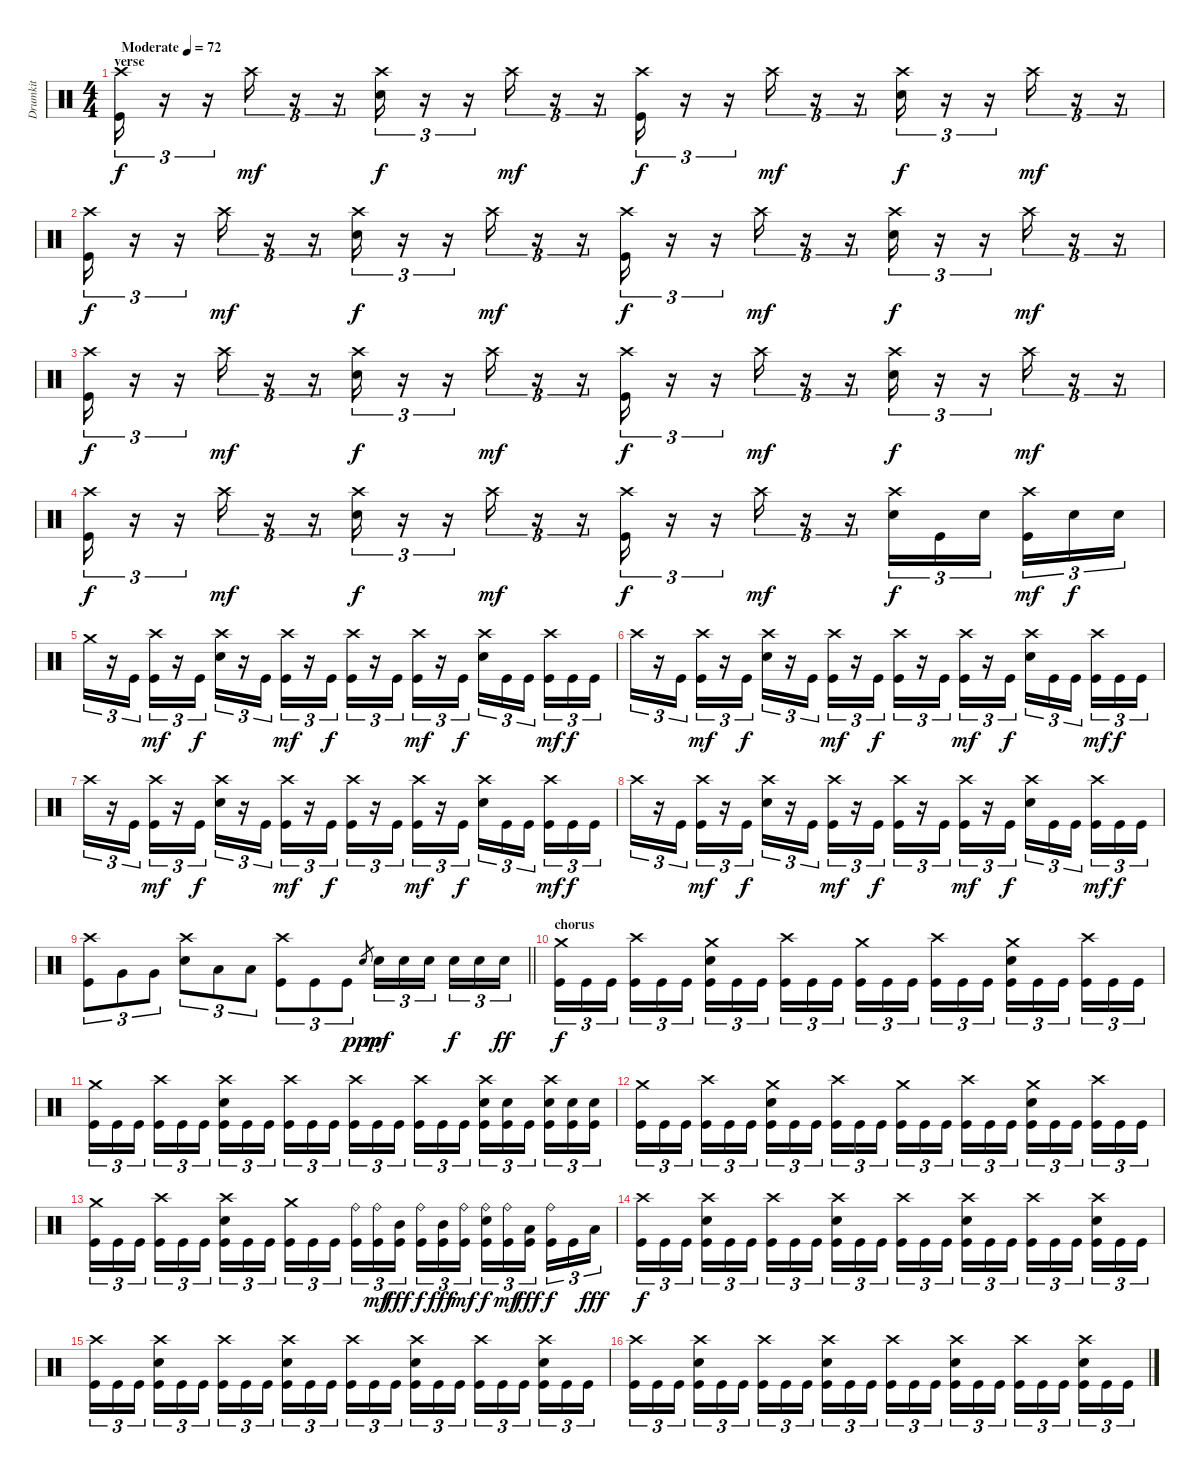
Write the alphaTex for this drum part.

\track ("Drumkit" "Drumkit") {instrument percussion}
\staff
\articulation defaults
\ts (4 4)
\section ("" "verse")
\tempo (72 "Moderate")
\clef neutral
\ks c
("Crash high (hit)" "Kick (hit)").16{tu (3 2) dy f} r.16{tu (3 2)} r.16{tu (3 2)} "Crash high (hit)".16{tu (3 2) dy mf} r.16{tu (3 2)} r.16{tu (3 2)} ("Crash high (hit)" "Snare (hit) 2").16{tu (3 2) dy f} r.16{tu (3 2)} r.16{tu (3 2)} "Crash high (hit)".16{tu (3 2) dy mf} r.16{tu (3 2)} r.16{tu (3 2)} ("Crash high (hit)" "Kick (hit)").16{tu (3 2) dy f} r.16{tu (3 2)} r.16{tu (3 2)} "Crash high (hit)".16{tu (3 2) dy mf} r.16{tu (3 2)} r.16{tu (3 2)} ("Crash high (hit)" "Snare (hit) 2").16{tu (3 2) dy f} r.16{tu (3 2)} r.16{tu (3 2)} "Crash high (hit)".16{tu (3 2) dy mf} r.16{tu (3 2)} r.16{tu (3 2)} |
("Crash high (hit)" "Kick (hit)").16{tu (3 2) dy f} r.16{tu (3 2)} r.16{tu (3 2)} "Crash high (hit)".16{tu (3 2) dy mf} r.16{tu (3 2)} r.16{tu (3 2)} ("Crash high (hit)" "Snare (hit) 2").16{tu (3 2) dy f} r.16{tu (3 2)} r.16{tu (3 2)} "Crash high (hit)".16{tu (3 2) dy mf} r.16{tu (3 2)} r.16{tu (3 2)} ("Crash high (hit)" "Kick (hit)").16{tu (3 2) dy f} r.16{tu (3 2)} r.16{tu (3 2)} "Crash high (hit)".16{tu (3 2) dy mf} r.16{tu (3 2)} r.16{tu (3 2)} ("Crash high (hit)" "Snare (hit) 2").16{tu (3 2) dy f} r.16{tu (3 2)} r.16{tu (3 2)} "Crash high (hit)".16{tu (3 2) dy mf} r.16{tu (3 2)} r.16{tu (3 2)} |
("Crash high (hit)" "Kick (hit)").16{tu (3 2) dy f} r.16{tu (3 2)} r.16{tu (3 2)} "Crash high (hit)".16{tu (3 2) dy mf} r.16{tu (3 2)} r.16{tu (3 2)} ("Crash high (hit)" "Snare (hit) 2").16{tu (3 2) dy f} r.16{tu (3 2)} r.16{tu (3 2)} "Crash high (hit)".16{tu (3 2) dy mf} r.16{tu (3 2)} r.16{tu (3 2)} ("Crash high (hit)" "Kick (hit)").16{tu (3 2) dy f} r.16{tu (3 2)} r.16{tu (3 2)} "Crash high (hit)".16{tu (3 2) dy mf} r.16{tu (3 2)} r.16{tu (3 2)} ("Crash high (hit)" "Snare (hit) 2").16{tu (3 2) dy f} r.16{tu (3 2)} r.16{tu (3 2)} "Crash high (hit)".16{tu (3 2) dy mf} r.16{tu (3 2)} r.16{tu (3 2)} |
("Crash high (hit)" "Kick (hit)").16{tu (3 2) dy f} r.16{tu (3 2)} r.16{tu (3 2)} "Crash high (hit)".16{tu (3 2) dy mf} r.16{tu (3 2)} r.16{tu (3 2)} ("Crash high (hit)" "Snare (hit) 2").16{tu (3 2) dy f} r.16{tu (3 2)} r.16{tu (3 2)} "Crash high (hit)".16{tu (3 2) dy mf} r.16{tu (3 2)} r.16{tu (3 2)} ("Crash high (hit)" "Kick (hit)").16{tu (3 2) dy f} r.16{tu (3 2)} r.16{tu (3 2)} "Crash high (hit)".16{tu (3 2) dy mf} r.16{tu (3 2)} r.16{tu (3 2)} ("Crash high (hit)" "Snare (hit) 2").16{tu (3 2) dy f} "Kick (hit)".16{tu (3 2)} "Snare (hit) 2".16{tu (3 2) beam splitsecondary} ("Crash high (hit)" "Kick (hit)").16{tu (3 2) dy mf} "Snare (hit) 2".16{tu (3 2) dy f} "Snare (hit) 2".16{tu (3 2)} |
"Crash medium (hit)".16{tu (3 2)} r.16{tu (3 2)} "Kick (hit)".16{tu (3 2)} ("Crash high (hit)" "Kick (hit)").16{tu (3 2) dy mf} r.16{tu (3 2)} "Kick (hit)".16{tu (3 2) dy f} ("Crash high (hit)" "Snare (hit) 2").16{tu (3 2)} r.16{tu (3 2)} "Kick (hit)".16{tu (3 2)} ("Crash high (hit)" "Kick (hit)").16{tu (3 2) dy mf} r.16{tu (3 2)} "Kick (hit)".16{tu (3 2) dy f} ("Crash high (hit)" "Kick (hit)").16{tu (3 2)} r.16{tu (3 2)} "Kick (hit)".16{tu (3 2)} ("Crash high (hit)" "Kick (hit)").16{tu (3 2) dy mf} r.16{tu (3 2)} "Kick (hit)".16{tu (3 2) dy f} ("Crash high (hit)" "Snare (hit) 2").16{tu (3 2)} "Kick (hit)".16{tu (3 2)} "Kick (hit)".16{tu (3 2) beam splitsecondary} ("Crash high (hit)" "Kick (hit)").16{tu (3 2) dy mf} "Kick (hit)".16{tu (3 2) dy f} "Kick (hit)".16{tu (3 2)} |
"Crash high (hit)".16{tu (3 2)} r.16{tu (3 2)} "Kick (hit)".16{tu (3 2)} ("Crash high (hit)" "Kick (hit)").16{tu (3 2) dy mf} r.16{tu (3 2)} "Kick (hit)".16{tu (3 2) dy f} ("Crash high (hit)" "Snare (hit) 2").16{tu (3 2)} r.16{tu (3 2)} "Kick (hit)".16{tu (3 2)} ("Crash high (hit)" "Kick (hit)").16{tu (3 2) dy mf} r.16{tu (3 2)} "Kick (hit)".16{tu (3 2) dy f} ("Crash high (hit)" "Kick (hit)").16{tu (3 2)} r.16{tu (3 2)} "Kick (hit)".16{tu (3 2)} ("Crash high (hit)" "Kick (hit)").16{tu (3 2) dy mf} r.16{tu (3 2)} "Kick (hit)".16{tu (3 2) dy f} ("Crash high (hit)" "Snare (hit) 2").16{tu (3 2)} "Kick (hit)".16{tu (3 2)} "Kick (hit)".16{tu (3 2) beam splitsecondary} ("Crash high (hit)" "Kick (hit)").16{tu (3 2) dy mf} "Kick (hit)".16{tu (3 2) dy f} "Kick (hit)".16{tu (3 2)} |
"Crash high (hit)".16{tu (3 2)} r.16{tu (3 2)} "Kick (hit)".16{tu (3 2)} ("Crash high (hit)" "Kick (hit)").16{tu (3 2) dy mf} r.16{tu (3 2)} "Kick (hit)".16{tu (3 2) dy f} ("Crash high (hit)" "Snare (hit) 2").16{tu (3 2)} r.16{tu (3 2)} "Kick (hit)".16{tu (3 2)} ("Crash high (hit)" "Kick (hit)").16{tu (3 2) dy mf} r.16{tu (3 2)} "Kick (hit)".16{tu (3 2) dy f} ("Crash high (hit)" "Kick (hit)").16{tu (3 2)} r.16{tu (3 2)} "Kick (hit)".16{tu (3 2)} ("Crash high (hit)" "Kick (hit)").16{tu (3 2) dy mf} r.16{tu (3 2)} "Kick (hit)".16{tu (3 2) dy f} ("Crash high (hit)" "Snare (hit) 2").16{tu (3 2)} "Kick (hit)".16{tu (3 2)} "Kick (hit)".16{tu (3 2) beam splitsecondary} ("Crash high (hit)" "Kick (hit)").16{tu (3 2) dy mf} "Kick (hit)".16{tu (3 2) dy f} "Kick (hit)".16{tu (3 2)} |
"Crash high (hit)".16{tu (3 2)} r.16{tu (3 2)} "Kick (hit)".16{tu (3 2)} ("Crash high (hit)" "Kick (hit)").16{tu (3 2) dy mf} r.16{tu (3 2)} "Kick (hit)".16{tu (3 2) dy f} ("Crash high (hit)" "Snare (hit) 2").16{tu (3 2)} r.16{tu (3 2)} "Kick (hit)".16{tu (3 2)} ("Crash high (hit)" "Kick (hit)").16{tu (3 2) dy mf} r.16{tu (3 2)} "Kick (hit)".16{tu (3 2) dy f} ("Crash high (hit)" "Kick (hit)").16{tu (3 2)} r.16{tu (3 2)} "Kick (hit)".16{tu (3 2)} ("Crash high (hit)" "Kick (hit)").16{tu (3 2) dy mf} r.16{tu (3 2)} "Kick (hit)".16{tu (3 2) dy f} ("Crash high (hit)" "Snare (hit) 2").16{tu (3 2)} "Kick (hit)".16{tu (3 2)} "Kick (hit)".16{tu (3 2) beam splitsecondary} ("Crash high (hit)" "Kick (hit)").16{tu (3 2) dy mf} "Kick (hit)".16{tu (3 2) dy f} "Kick (hit)".16{tu (3 2)} |
\barLineRight lightlight
("Crash high (hit)" "Kick (hit)").8{tu (3 2)} "Very Low Tom (hit)".8{tu (3 2)} "Very Low Tom (hit)".8{tu (3 2)} ("Crash high (hit)" "Snare (hit) 2").8{tu (3 2)} "Low Floor Tom (hit)".8{tu (3 2)} "Low Floor Tom (hit)".8{tu (3 2)} ("Crash high (hit)" "Kick (hit)").8{tu (3 2)} "Kick (hit)".8{tu (3 2)} "Kick (hit)".8{tu (3 2)} "Snare (hit)".8{gr dy ppp} "Snare (hit) 2".16{tu (3 2) dy mf} "Snare (hit) 2".16{tu (3 2)} "Snare (hit) 2".16{tu (3 2) beam splitsecondary} "Snare (hit) 2".16{tu (3 2) dy f} "Snare (hit) 2".16{tu (3 2)} "Snare (hit) 2".16{tu (3 2) dy ff} |
\section ("" "chorus")
("Crash medium (hit)" "Kick (hit)").16{tu (3 2) dy f} "Kick (hit)".16{tu (3 2)} "Kick (hit)".16{tu (3 2) beam splitsecondary} ("Crash high (hit)" "Kick (hit)").16{tu (3 2)} "Kick (hit)".16{tu (3 2)} "Kick (hit)".16{tu (3 2)} ("Crash medium (hit)" "Snare (hit) 2" "Kick (hit)").16{tu (3 2)} "Kick (hit)".16{tu (3 2)} "Kick (hit)".16{tu (3 2) beam splitsecondary} ("Crash high (hit)" "Kick (hit)").16{tu (3 2)} "Kick (hit)".16{tu (3 2)} "Kick (hit)".16{tu (3 2)} ("Crash medium (hit)" "Kick (hit)").16{tu (3 2)} "Kick (hit)".16{tu (3 2)} "Kick (hit)".16{tu (3 2) beam splitsecondary} ("Crash high (hit)" "Kick (hit)").16{tu (3 2)} "Kick (hit)".16{tu (3 2)} "Kick (hit)".16{tu (3 2)} ("Crash medium (hit)" "Snare (hit) 2" "Kick (hit)").16{tu (3 2)} "Kick (hit)".16{tu (3 2)} "Kick (hit)".16{tu (3 2) beam splitsecondary} ("Crash high (hit)" "Kick (hit)").16{tu (3 2)} "Kick (hit)".16{tu (3 2)} "Kick (hit)".16{tu (3 2)} |
("Crash medium (hit)" "Kick (hit)").16{tu (3 2)} "Kick (hit)".16{tu (3 2)} "Kick (hit)".16{tu (3 2) beam splitsecondary} ("Crash high (hit)" "Kick (hit)").16{tu (3 2)} "Kick (hit)".16{tu (3 2)} "Kick (hit)".16{tu (3 2)} ("Crash high (hit)" "Snare (hit) 2" "Kick (hit)").16{tu (3 2)} "Kick (hit)".16{tu (3 2)} "Kick (hit)".16{tu (3 2) beam splitsecondary} ("Crash high (hit)" "Kick (hit)").16{tu (3 2)} "Kick (hit)".16{tu (3 2)} "Kick (hit)".16{tu (3 2)} ("Crash high (hit)" "Kick (hit)").16{tu (3 2)} "Kick (hit)".16{tu (3 2)} "Kick (hit)".16{tu (3 2) beam splitsecondary} ("Crash high (hit)" "Kick (hit)").16{tu (3 2)} "Kick (hit)".16{tu (3 2)} "Kick (hit)".16{tu (3 2)} ("Crash high (hit)" "Snare (hit) 2" "Kick (hit)").16{tu (3 2)} ("Snare (hit) 2" "Kick (hit)").16{tu (3 2)} "Kick (hit)".16{tu (3 2) beam splitsecondary} ("Crash high (hit)" "Snare (hit) 2" "Kick (hit)").16{tu (3 2)} ("Snare (hit) 2" "Kick (hit)").16{tu (3 2)} ("Snare (hit) 2" "Kick (hit)").16{tu (3 2)} |
("Crash medium (hit)" "Kick (hit)").16{tu (3 2)} "Kick (hit)".16{tu (3 2)} "Kick (hit)".16{tu (3 2) beam splitsecondary} ("Crash high (hit)" "Kick (hit)").16{tu (3 2)} "Kick (hit)".16{tu (3 2)} "Kick (hit)".16{tu (3 2)} ("Crash medium (hit)" "Snare (hit) 2" "Kick (hit)").16{tu (3 2)} "Kick (hit)".16{tu (3 2)} "Kick (hit)".16{tu (3 2) beam splitsecondary} ("Crash high (hit)" "Kick (hit)").16{tu (3 2)} "Kick (hit)".16{tu (3 2)} "Kick (hit)".16{tu (3 2)} ("Crash medium (hit)" "Kick (hit)").16{tu (3 2)} "Kick (hit)".16{tu (3 2)} "Kick (hit)".16{tu (3 2) beam splitsecondary} ("Crash high (hit)" "Kick (hit)").16{tu (3 2)} "Kick (hit)".16{tu (3 2)} "Kick (hit)".16{tu (3 2)} ("Crash medium (hit)" "Snare (hit) 2" "Kick (hit)").16{tu (3 2)} "Kick (hit)".16{tu (3 2)} "Kick (hit)".16{tu (3 2) beam splitsecondary} ("Crash high (hit)" "Kick (hit)").16{tu (3 2)} "Kick (hit)".16{tu (3 2)} "Kick (hit)".16{tu (3 2)} |
("Crash medium (hit)" "Kick (hit)").16{tu (3 2)} "Kick (hit)".16{tu (3 2)} "Kick (hit)".16{tu (3 2) beam splitsecondary} ("Crash high (hit)" "Kick (hit)").16{tu (3 2)} "Kick (hit)".16{tu (3 2)} "Kick (hit)".16{tu (3 2)} ("Crash high (hit)" "Snare (hit) 2" "Kick (hit)").16{tu (3 2)} "Kick (hit)".16{tu (3 2)} "Kick (hit)".16{tu (3 2) beam splitsecondary} ("Crash medium (hit)" "Kick (hit)").16{tu (3 2)} "Kick (hit)".16{tu (3 2)} "Kick (hit)".16{tu (3 2)} ("Ride (bell)" "Kick (hit)").16{tu (3 2)} ("Ride (bell)" "Kick (hit)").16{tu (3 2) dy mf} ("Mid Tom (hit)" "Kick (hit)").16{tu (3 2) dy fff beam splitsecondary} ("Ride (bell)" "Kick (hit)").16{tu (3 2) dy f} ("Mid Tom (hit)" "Kick (hit)").16{tu (3 2) dy fff} ("Ride (bell)" "Kick (hit)").16{tu (3 2) dy mf} ("Ride (bell)" "Snare (hit) 2" "Kick (hit)").16{tu (3 2) dy f} ("Ride (bell)" "Kick (hit)").16{tu (3 2) dy mf} ("Low Tom (hit)" "Kick (hit)").16{tu (3 2) dy fff beam splitsecondary} ("Ride (bell)" "Kick (hit)").16{tu (3 2) dy f} "Kick (hit)".16{tu (3 2)} "Low Floor Tom (hit)".16{tu (3 2) dy fff} |
("Crash high (hit)" "Kick (hit)").16{tu (3 2) dy f} "Kick (hit)".16{tu (3 2)} "Kick (hit)".16{tu (3 2) beam splitsecondary} ("Crash high (hit)" "Snare (hit) 2" "Kick (hit)").16{tu (3 2)} "Kick (hit)".16{tu (3 2)} "Kick (hit)".16{tu (3 2)} ("Crash high (hit)" "Kick (hit)").16{tu (3 2)} "Kick (hit)".16{tu (3 2)} "Kick (hit)".16{tu (3 2) beam splitsecondary} ("Crash high (hit)" "Snare (hit) 2" "Kick (hit)").16{tu (3 2)} "Kick (hit)".16{tu (3 2)} "Kick (hit)".16{tu (3 2)} ("Crash high (hit)" "Kick (hit)").16{tu (3 2)} "Kick (hit)".16{tu (3 2)} "Kick (hit)".16{tu (3 2) beam splitsecondary} ("Crash high (hit)" "Snare (hit) 2" "Kick (hit)").16{tu (3 2)} "Kick (hit)".16{tu (3 2)} "Kick (hit)".16{tu (3 2)} ("Crash high (hit)" "Kick (hit)").16{tu (3 2)} "Kick (hit)".16{tu (3 2)} "Kick (hit)".16{tu (3 2) beam splitsecondary} ("Crash high (hit)" "Snare (hit) 2" "Kick (hit)").16{tu (3 2)} "Kick (hit)".16{tu (3 2)} "Kick (hit)".16{tu (3 2)} |
("Crash high (hit)" "Kick (hit)").16{tu (3 2)} "Kick (hit)".16{tu (3 2)} "Kick (hit)".16{tu (3 2) beam splitsecondary} ("Crash high (hit)" "Snare (hit) 2" "Kick (hit)").16{tu (3 2)} "Kick (hit)".16{tu (3 2)} "Kick (hit)".16{tu (3 2)} ("Crash high (hit)" "Kick (hit)").16{tu (3 2)} "Kick (hit)".16{tu (3 2)} "Kick (hit)".16{tu (3 2) beam splitsecondary} ("Crash high (hit)" "Snare (hit) 2" "Kick (hit)").16{tu (3 2)} "Kick (hit)".16{tu (3 2)} "Kick (hit)".16{tu (3 2)} ("Crash high (hit)" "Kick (hit)").16{tu (3 2)} "Kick (hit)".16{tu (3 2)} "Kick (hit)".16{tu (3 2) beam splitsecondary} ("Crash high (hit)" "Snare (hit) 2" "Kick (hit)").16{tu (3 2)} "Kick (hit)".16{tu (3 2)} "Kick (hit)".16{tu (3 2)} ("Crash high (hit)" "Kick (hit)").16{tu (3 2)} "Kick (hit)".16{tu (3 2)} "Kick (hit)".16{tu (3 2) beam splitsecondary} ("Crash high (hit)" "Snare (hit) 2" "Kick (hit)").16{tu (3 2)} "Kick (hit)".16{tu (3 2)} "Kick (hit)".16{tu (3 2)} |
("Crash high (hit)" "Kick (hit)").16{tu (3 2)} "Kick (hit)".16{tu (3 2)} "Kick (hit)".16{tu (3 2) beam splitsecondary} ("Crash high (hit)" "Snare (hit) 2" "Kick (hit)").16{tu (3 2)} "Kick (hit)".16{tu (3 2)} "Kick (hit)".16{tu (3 2)} ("Crash high (hit)" "Kick (hit)").16{tu (3 2)} "Kick (hit)".16{tu (3 2)} "Kick (hit)".16{tu (3 2) beam splitsecondary} ("Crash high (hit)" "Snare (hit) 2" "Kick (hit)").16{tu (3 2)} "Kick (hit)".16{tu (3 2)} "Kick (hit)".16{tu (3 2)} ("Crash high (hit)" "Kick (hit)").16{tu (3 2)} "Kick (hit)".16{tu (3 2)} "Kick (hit)".16{tu (3 2) beam splitsecondary} ("Crash high (hit)" "Snare (hit) 2" "Kick (hit)").16{tu (3 2)} "Kick (hit)".16{tu (3 2)} "Kick (hit)".16{tu (3 2)} ("Crash high (hit)" "Kick (hit)").16{tu (3 2)} "Kick (hit)".16{tu (3 2)} "Kick (hit)".16{tu (3 2) beam splitsecondary} ("Crash high (hit)" "Snare (hit) 2" "Kick (hit)").16{tu (3 2)} "Kick (hit)".16{tu (3 2)} "Kick (hit)".16{tu (3 2)}
